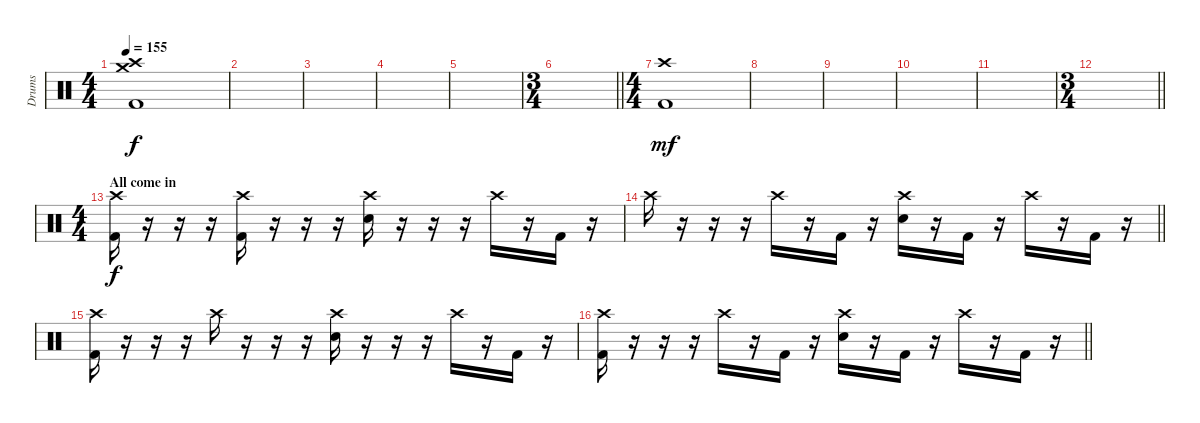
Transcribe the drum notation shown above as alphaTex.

\track ("Drums" "Drums") {instrument percussion}
\staff {score}
\articulation defaults
\ts (4 4)
\tempo 155
\clef neutral
\ks c
("Crash high (hit)" "Crash medium (hit)" "Kick (hit) 2").1{dy f} |
|
|
|
|
\ts (3 4)
\barLineRight lightlight
|
\ts (4 4)
("Crash high (hit)" "Kick (hit) 2").1{dy mf} |
|
|
|
|
\ts (3 4)
\barLineRight lightlight
|
\ts (4 4)
\section ("" "All come in")
("Crash high (hit)" "Kick (hit) 2").16{dy f} r.16 r.16 r.16 ("Crash high (hit)" "Kick (hit) 2").16 r.16 r.16 r.16 ("Crash high (hit)" "Electric Snare (hit)").16 r.16 r.16 r.16 "Crash high (hit)".16 r.16 "Kick (hit) 2".16 r.16 |
\barLineRight lightlight "Crash high (hit)".16
r.16 r.16 r.16 "Crash high (hit)".16 r.16 "Kick (hit) 2".16 r.16 ("Crash high (hit)" "Electric Snare (hit)").16 r.16 "Kick (hit) 2".16 r.16 "Crash high (hit)".16 r.16 "Kick (hit) 2".16 r.16 |
("Crash high (hit)" "Kick (hit) 2").16 r.16 r.16 r.16 "Crash high (hit)".16 r.16 r.16 r.16 ("Crash high (hit)" "Electric Snare (hit)").16 r.16 r.16 r.16 "Crash high (hit)".16 r.16 "Kick (hit) 2".16 r.16 |
\barLineRight lightlight
("Crash high (hit)" "Kick (hit) 2").16 r.16 r.16 r.16 "Crash high (hit)".16 r.16 "Kick (hit) 2".16 r.16 ("Crash high (hit)" "Electric Snare (hit)").16 r.16 "Kick (hit) 2".16 r.16 "Crash high (hit)".16 r.16 "Kick (hit) 2".16 r.16
